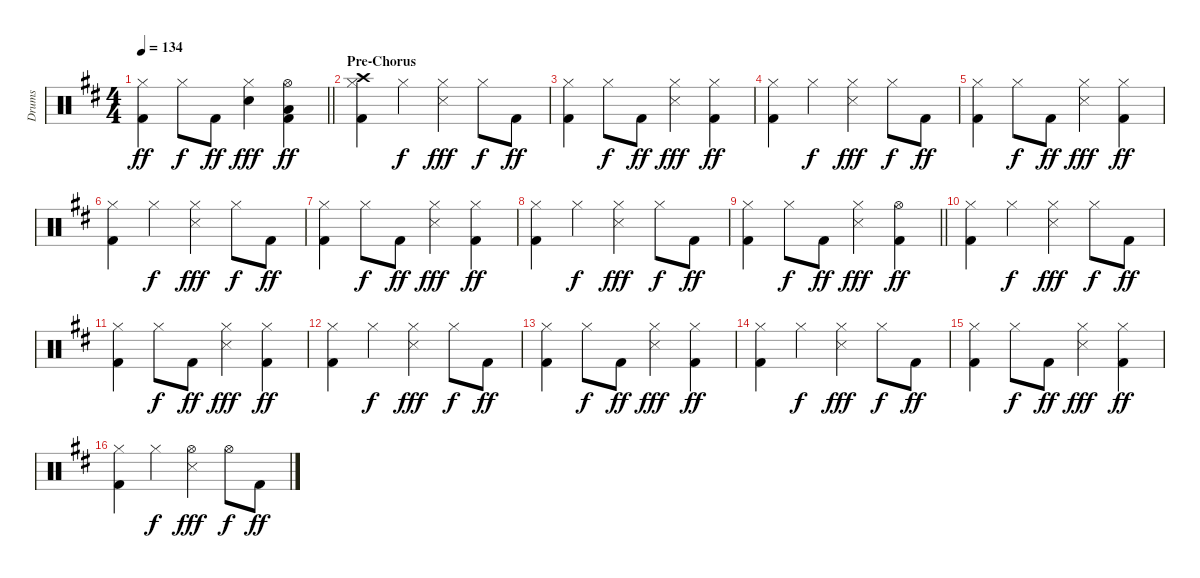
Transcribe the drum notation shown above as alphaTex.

\track ("Drums" "Drums") {instrument percussion}
\staff {score}
\articulation defaults
\ts (4 4)
\tempo 134
\clef neutral
\barLineRight lightlight
\ks d
("Kick (hit) 2" "Hi-Hat (closed)").4{dy ff} "Hi-Hat (closed)".8{dy f} "Kick (hit) 2".8{dy ff} ("Snare (hit) 2" "Hi-Hat (closed)").4{dy fff} ("Kick (hit) 2" "Low Tom (hit)" "Hi-Hat (open)").4{dy ff} |
\section ("" "Pre-Chorus")
("Kick (hit) 2" "Hi-Hat (closed)" "Crash high (hit)").4 "Hi-Hat (closed)".4{dy f} ("Snare (side stick) 3" "Hi-Hat (closed)").4{dy fff} "Hi-Hat (closed)".8{dy f} "Kick (hit) 2".8{dy ff} |
("Kick (hit) 2" "Hi-Hat (closed)").4 "Hi-Hat (closed)".8{dy f} "Kick (hit) 2".8{dy ff} ("Snare (side stick) 3" "Hi-Hat (closed)").4{dy fff} ("Kick (hit) 2" "Hi-Hat (closed)").4{dy ff} |
("Kick (hit) 2" "Hi-Hat (closed)").4 "Hi-Hat (closed)".4{dy f} ("Snare (side stick) 3" "Hi-Hat (closed)").4{dy fff} "Hi-Hat (closed)".8{dy f} "Kick (hit) 2".8{dy ff} |
("Kick (hit) 2" "Hi-Hat (closed)").4 "Hi-Hat (closed)".8{dy f} "Kick (hit) 2".8{dy ff} ("Snare (side stick) 3" "Hi-Hat (closed)").4{dy fff} ("Kick (hit) 2" "Hi-Hat (closed)").4{dy ff} |
("Kick (hit) 2" "Hi-Hat (closed)").4 "Hi-Hat (closed)".4{dy f} ("Snare (side stick) 3" "Hi-Hat (closed)").4{dy fff} "Hi-Hat (closed)".8{dy f} "Kick (hit) 2".8{dy ff} |
("Kick (hit) 2" "Hi-Hat (closed)").4 "Hi-Hat (closed)".8{dy f} "Kick (hit) 2".8{dy ff} ("Snare (side stick) 3" "Hi-Hat (closed)").4{dy fff} ("Kick (hit) 2" "Hi-Hat (closed)").4{dy ff} |
("Kick (hit) 2" "Hi-Hat (closed)").4 "Hi-Hat (closed)".4{dy f} ("Snare (side stick) 3" "Hi-Hat (closed)").4{dy fff} "Hi-Hat (closed)".8{dy f} "Kick (hit) 2".8{dy ff} |
\barLineRight lightlight
("Kick (hit) 2" "Hi-Hat (closed)").4 "Hi-Hat (closed)".8{dy f} "Kick (hit) 2".8{dy ff} ("Snare (side stick) 3" "Hi-Hat (closed)").4{dy fff} ("Kick (hit) 2" "Hi-Hat (open)").4{dy ff} |
("Kick (hit) 2" "Hi-Hat (closed)").4 "Hi-Hat (closed)".4{dy f} ("Snare (side stick) 3" "Hi-Hat (closed)").4{dy fff} "Hi-Hat (closed)".8{dy f} "Kick (hit) 2".8{dy ff} |
("Kick (hit) 2" "Hi-Hat (closed)").4 "Hi-Hat (closed)".8{dy f} "Kick (hit) 2".8{dy ff} ("Snare (side stick) 3" "Hi-Hat (closed)").4{dy fff} ("Kick (hit) 2" "Hi-Hat (closed)").4{dy ff} |
("Kick (hit) 2" "Hi-Hat (closed)").4 "Hi-Hat (closed)".4{dy f} ("Snare (side stick) 3" "Hi-Hat (closed)").4{dy fff} "Hi-Hat (closed)".8{dy f} "Kick (hit) 2".8{dy ff} |
("Kick (hit) 2" "Hi-Hat (closed)").4 "Hi-Hat (closed)".8{dy f} "Kick (hit) 2".8{dy ff} ("Snare (side stick) 3" "Hi-Hat (closed)").4{dy fff} ("Kick (hit) 2" "Hi-Hat (closed)").4{dy ff} |
("Kick (hit) 2" "Hi-Hat (closed)").4 "Hi-Hat (closed)".4{dy f} ("Snare (side stick) 3" "Hi-Hat (closed)").4{dy fff} "Hi-Hat (closed)".8{dy f} "Kick (hit) 2".8{dy ff} |
("Kick (hit) 2" "Hi-Hat (closed)").4 "Hi-Hat (closed)".8{dy f} "Kick (hit) 2".8{dy ff} ("Snare (side stick) 3" "Hi-Hat (closed)").4{dy fff} ("Kick (hit) 2" "Hi-Hat (closed)").4{dy ff} |
("Kick (hit) 2" "Hi-Hat (closed)").4 "Hi-Hat (closed)".4{dy f} ("Snare (side stick) 3" "Hi-Hat (open)").4{dy fff} "Hi-Hat (open)".8{dy f} "Kick (hit) 2".8{dy ff}
